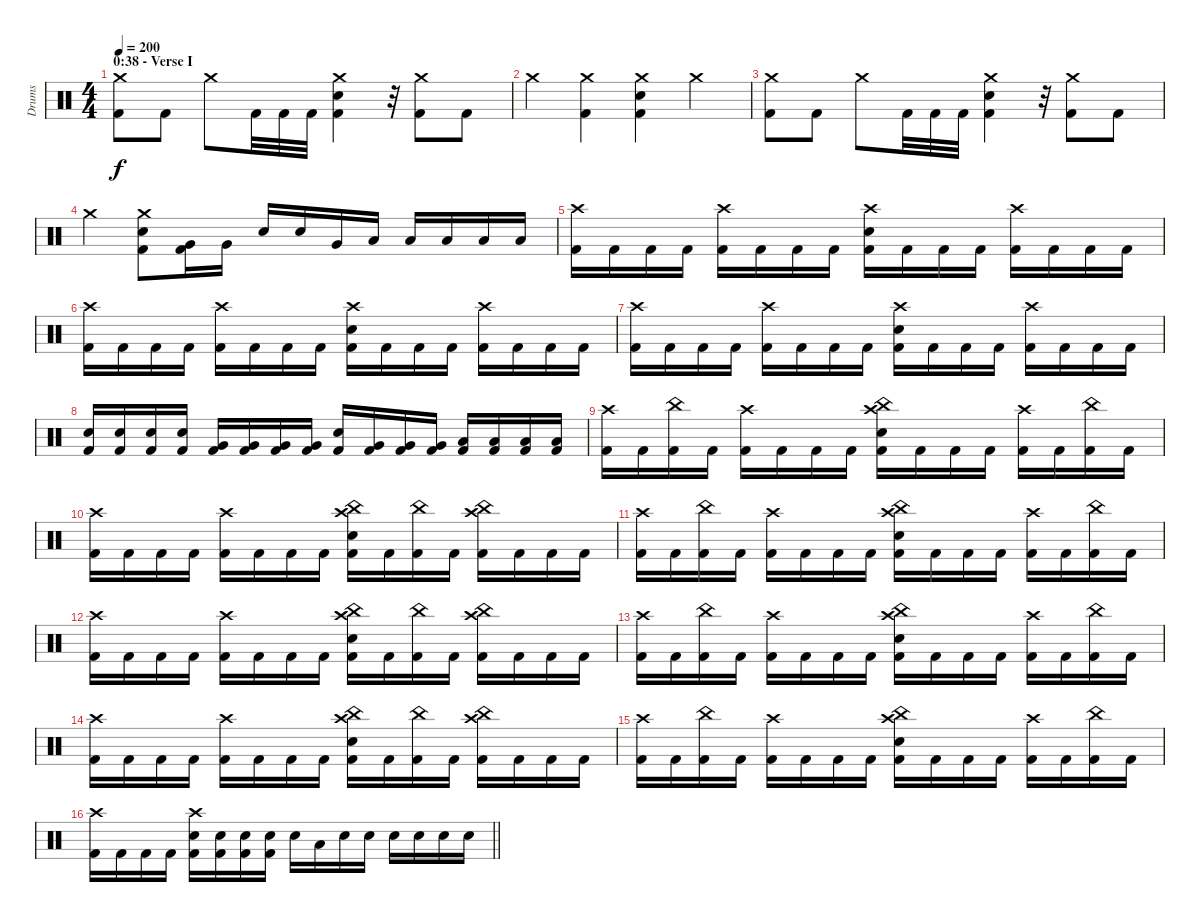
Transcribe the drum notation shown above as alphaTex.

\track ("Drums" "Drums") {instrument percussion}
\staff {score}
\articulation defaults
\ts (4 4)
\section ("" "0:38 - Verse I")
\tempo 200
\clef neutral
\ks c
("Crash medium (hit)" "Kick (hit) 2").8{dy f} "Kick (hit) 2".8 "Crash medium (hit)".8 "Kick (hit) 2".32 "Kick (hit) 2".32 "Kick (hit) 2".32 ("Crash medium (hit)" "Electric Snare (hit)" "Kick (hit) 2").4 r.32 ("Crash medium (hit)" "Kick (hit) 2").8 "Kick (hit) 2".8 |
"Crash medium (hit)".4 ("Crash medium (hit)" "Kick (hit) 2").4 ("Crash medium (hit)" "Electric Snare (hit)" "Kick (hit) 2").4 "Crash medium (hit)".4 |
("Crash medium (hit)" "Kick (hit) 2").8 "Kick (hit) 2".8 "Crash medium (hit)".8 "Kick (hit) 2".32 "Kick (hit) 2".32 "Kick (hit) 2".32 ("Crash medium (hit)" "Electric Snare (hit)" "Kick (hit) 2").4 r.32 ("Crash medium (hit)" "Kick (hit) 2").8 "Kick (hit) 2".8 |
"Crash medium (hit)".4 ("Crash medium (hit)" "Electric Snare (hit)" "Kick (hit) 2").8 ("Very Low Tom (hit)" "Kick (hit) 2").16 "Very Low Tom (hit)".16 "Electric Snare (hit)".16 "Electric Snare (hit)".16 "Very Low Tom (hit)".16 "Low Floor Tom (hit)".16 "Low Floor Tom (hit)".16 "Low Floor Tom (hit)".16 "Low Floor Tom (hit)".16 "Low Floor Tom (hit)".16 |
("Crash high (hit)" "Kick (hit) 2").16 "Kick (hit) 2".16 "Kick (hit) 2".16 "Kick (hit) 2".16 ("Crash high (hit)" "Kick (hit) 2").16 "Kick (hit) 2".16 "Kick (hit) 2".16 "Kick (hit) 2".16 ("Crash high (hit)" "Electric Snare (hit)" "Kick (hit) 2").16 "Kick (hit) 2".16 "Kick (hit) 2".16 "Kick (hit) 2".16 ("Crash high (hit)" "Kick (hit) 2").16 "Kick (hit) 2".16 "Kick (hit) 2".16 "Kick (hit) 2".16 |
("Crash high (hit)" "Kick (hit) 2").16 "Kick (hit) 2".16 "Kick (hit) 2".16 "Kick (hit) 2".16 ("Crash high (hit)" "Kick (hit) 2").16 "Kick (hit) 2".16 "Kick (hit) 2".16 "Kick (hit) 2".16 ("Crash high (hit)" "Electric Snare (hit)" "Kick (hit) 2").16 "Kick (hit) 2".16 "Kick (hit) 2".16 "Kick (hit) 2".16 ("Crash high (hit)" "Kick (hit) 2").16 "Kick (hit) 2".16 "Kick (hit) 2".16 "Kick (hit) 2".16 |
("Crash high (hit)" "Kick (hit) 2").16 "Kick (hit) 2".16 "Kick (hit) 2".16 "Kick (hit) 2".16 ("Crash high (hit)" "Kick (hit) 2").16 "Kick (hit) 2".16 "Kick (hit) 2".16 "Kick (hit) 2".16 ("Crash high (hit)" "Electric Snare (hit)" "Kick (hit) 2").16 "Kick (hit) 2".16 "Kick (hit) 2".16 "Kick (hit) 2".16 ("Crash high (hit)" "Kick (hit) 2").16 "Kick (hit) 2".16 "Kick (hit) 2".16 "Kick (hit) 2".16 |
("Electric Snare (hit)" "Kick (hit) 2").16 ("Electric Snare (hit)" "Kick (hit) 2").16 ("Electric Snare (hit)" "Kick (hit) 2").16 ("Electric Snare (hit)" "Kick (hit) 2").16 ("Very Low Tom (hit)" "Kick (hit) 2").16 ("Very Low Tom (hit)" "Kick (hit) 2").16 ("Very Low Tom (hit)" "Kick (hit) 2").16 ("Very Low Tom (hit)" "Kick (hit) 2").16 ("Electric Snare (hit)" "Kick (hit) 2").16 ("Very Low Tom (hit)" "Kick (hit) 2").16 ("Very Low Tom (hit)" "Kick (hit) 2").16 ("Very Low Tom (hit)" "Kick (hit) 2").16 ("Low Floor Tom (hit)" "Kick (hit) 2").16 ("Low Floor Tom (hit)" "Kick (hit) 2").16 ("Low Floor Tom (hit)" "Kick (hit) 2").16 ("Low Floor Tom (hit)" "Kick (hit) 2").16 |
("Crash high (hit)" "Kick (hit) 2").16 "Kick (hit) 2".16 ("China (hit)" "Kick (hit) 2").16 "Kick (hit) 2".16 ("Crash high (hit)" "Kick (hit) 2").16 "Kick (hit) 2".16 "Kick (hit) 2".16 "Kick (hit) 2".16 ("Crash high (hit)" "China (hit)" "Electric Snare (hit)" "Kick (hit) 2").16 "Kick (hit) 2".16 "Kick (hit) 2".16 "Kick (hit) 2".16 ("Crash high (hit)" "Kick (hit) 2").16 "Kick (hit) 2".16 ("China (hit)" "Kick (hit) 2").16 "Kick (hit) 2".16 |
("Crash high (hit)" "Kick (hit) 2").16 "Kick (hit) 2".16 "Kick (hit) 2".16 "Kick (hit) 2".16 ("Crash high (hit)" "Kick (hit) 2").16 "Kick (hit) 2".16 "Kick (hit) 2".16 "Kick (hit) 2".16 ("Crash high (hit)" "China (hit)" "Electric Snare (hit)" "Kick (hit) 2").16 "Kick (hit) 2".16 ("China (hit)" "Kick (hit) 2").16 "Kick (hit) 2".16 ("Crash high (hit)" "China (hit)" "Kick (hit) 2").16 "Kick (hit) 2".16 "Kick (hit) 2".16 "Kick (hit) 2".16 |
("Crash high (hit)" "Kick (hit) 2").16 "Kick (hit) 2".16 ("China (hit)" "Kick (hit) 2").16 "Kick (hit) 2".16 ("Crash high (hit)" "Kick (hit) 2").16 "Kick (hit) 2".16 "Kick (hit) 2".16 "Kick (hit) 2".16 ("Crash high (hit)" "China (hit)" "Electric Snare (hit)" "Kick (hit) 2").16 "Kick (hit) 2".16 "Kick (hit) 2".16 "Kick (hit) 2".16 ("Crash high (hit)" "Kick (hit) 2").16 "Kick (hit) 2".16 ("China (hit)" "Kick (hit) 2").16 "Kick (hit) 2".16 |
("Crash high (hit)" "Kick (hit) 2").16 "Kick (hit) 2".16 "Kick (hit) 2".16 "Kick (hit) 2".16 ("Crash high (hit)" "Kick (hit) 2").16 "Kick (hit) 2".16 "Kick (hit) 2".16 "Kick (hit) 2".16 ("Crash high (hit)" "China (hit)" "Electric Snare (hit)" "Kick (hit) 2").16 "Kick (hit) 2".16 ("China (hit)" "Kick (hit) 2").16 "Kick (hit) 2".16 ("Crash high (hit)" "China (hit)" "Kick (hit) 2").16 "Kick (hit) 2".16 "Kick (hit) 2".16 "Kick (hit) 2".16 |
("Crash high (hit)" "Kick (hit) 2").16 "Kick (hit) 2".16 ("China (hit)" "Kick (hit) 2").16 "Kick (hit) 2".16 ("Crash high (hit)" "Kick (hit) 2").16 "Kick (hit) 2".16 "Kick (hit) 2".16 "Kick (hit) 2".16 ("Crash high (hit)" "China (hit)" "Electric Snare (hit)" "Kick (hit) 2").16 "Kick (hit) 2".16 "Kick (hit) 2".16 "Kick (hit) 2".16 ("Crash high (hit)" "Kick (hit) 2").16 "Kick (hit) 2".16 ("China (hit)" "Kick (hit) 2").16 "Kick (hit) 2".16 |
("Crash high (hit)" "Kick (hit) 2").16 "Kick (hit) 2".16 "Kick (hit) 2".16 "Kick (hit) 2".16 ("Crash high (hit)" "Kick (hit) 2").16 "Kick (hit) 2".16 "Kick (hit) 2".16 "Kick (hit) 2".16 ("Crash high (hit)" "China (hit)" "Electric Snare (hit)" "Kick (hit) 2").16 "Kick (hit) 2".16 ("China (hit)" "Kick (hit) 2").16 "Kick (hit) 2".16 ("Crash high (hit)" "China (hit)" "Kick (hit) 2").16 "Kick (hit) 2".16 "Kick (hit) 2".16 "Kick (hit) 2".16 |
("Crash high (hit)" "Kick (hit) 2").16 "Kick (hit) 2".16 ("China (hit)" "Kick (hit) 2").16 "Kick (hit) 2".16 ("Crash high (hit)" "Kick (hit) 2").16 "Kick (hit) 2".16 "Kick (hit) 2".16 "Kick (hit) 2".16 ("Crash high (hit)" "China (hit)" "Electric Snare (hit)" "Kick (hit) 2").16 "Kick (hit) 2".16 "Kick (hit) 2".16 "Kick (hit) 2".16 ("Crash high (hit)" "Kick (hit) 2").16 "Kick (hit) 2".16 ("China (hit)" "Kick (hit) 2").16 "Kick (hit) 2".16 |
\barLineRight lightlight
("Crash high (hit)" "Kick (hit) 2").16 "Kick (hit) 2".16 "Kick (hit) 2".16 "Kick (hit) 2".16 ("Crash high (hit)" "Electric Snare (hit)" "Kick (hit) 2").16 ("Electric Snare (hit)" "Kick (hit) 2").16 ("Electric Snare (hit)" "Kick (hit) 2").16 ("Electric Snare (hit)" "Kick (hit) 2").16 "Electric Snare (hit)".16 "Low Floor Tom (hit)".16 "Electric Snare (hit)".16 "Electric Snare (hit)".16 "Electric Snare (hit)".16 "Electric Snare (hit)".16 "Electric Snare (hit)".16 "Electric Snare (hit)".16
